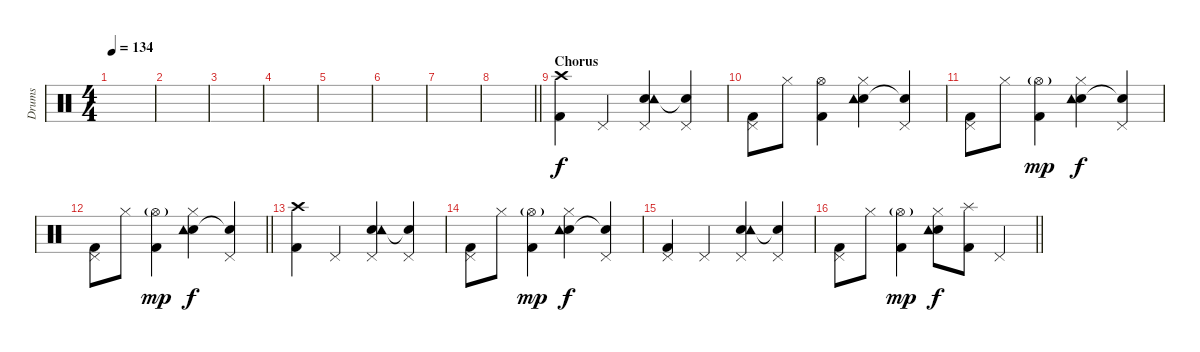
\track ("Drums" "Drums") {instrument percussion}
\staff {score}
\articulation defaults
\ts (4 4)
\tempo 134
\clef neutral
\ks c
|
|
|
|
|
|
|
\barLineRight lightlight
|
\section ("" "Chorus")
("Crash high (hit)" "Kick (hit) 2").4 "Pedal Hi-Hat (hit)".4 ("Pedal Hi-Hat (hit)" "Electric Snare (hit)" "Tambourine (hit)").4 ("Pedal Hi-Hat (hit)" "Snare (hit)"{t}).4 |
("Pedal Hi-Hat (hit)" "Kick (hit) 2").8 "Hi-Hat (closed)".8 ("Hi-Hat (open)" "Kick (hit) 2").4 ("Hi-Hat (closed)" "Electric Snare (hit)" "Tambourine (hit)").4 ("Pedal Hi-Hat (hit)" "Snare (hit)"{t}).4 |
("Pedal Hi-Hat (hit)" "Kick (hit) 2").8 "Hi-Hat (closed)".8 ("Hi-Hat (open)"{g} "Kick (hit) 2").4{dy mp} ("Hi-Hat (closed)" "Electric Snare (hit)" "Tambourine (hit)").4{dy f} ("Pedal Hi-Hat (hit)" "Snare (hit)"{t}).4 |
\barLineRight lightlight
("Pedal Hi-Hat (hit)" "Kick (hit) 2").8 "Hi-Hat (closed)".8 ("Hi-Hat (open)"{g} "Kick (hit) 2").4{dy mp} ("Hi-Hat (closed)" "Electric Snare (hit)" "Tambourine (hit)").4{dy f} ("Pedal Hi-Hat (hit)" "Snare (hit)"{t}).4 |
("Crash high (hit)" "Kick (hit) 2").4 "Pedal Hi-Hat (hit)".4 ("Pedal Hi-Hat (hit)" "Electric Snare (hit)" "Tambourine (hit)").4 ("Pedal Hi-Hat (hit)" "Snare (hit)"{t}).4 |
("Pedal Hi-Hat (hit)" "Kick (hit) 2").8 "Hi-Hat (closed)".8 ("Hi-Hat (open)"{g} "Kick (hit) 2").4{dy mp} ("Hi-Hat (closed)" "Electric Snare (hit)" "Tambourine (hit)").4{dy f} ("Pedal Hi-Hat (hit)" "Snare (hit)"{t}).4 |
("Pedal Hi-Hat (hit)" "Kick (hit) 2").4 "Pedal Hi-Hat (hit)".4 ("Pedal Hi-Hat (hit)" "Electric Snare (hit)" "Tambourine (hit)").4 ("Pedal Hi-Hat (hit)" "Snare (hit)"{t}).4 |
\barLineRight lightlight
("Pedal Hi-Hat (hit)" "Kick (hit) 2").8 "Hi-Hat (closed)".8 ("Hi-Hat (open)"{g} "Kick (hit) 2").4{dy mp} ("Hi-Hat (closed)" "Electric Snare (hit)" "Tambourine (hit)").8{dy f} ("Splash (hit)" "Kick (hit) 2").8 "Pedal Hi-Hat (hit)".4
